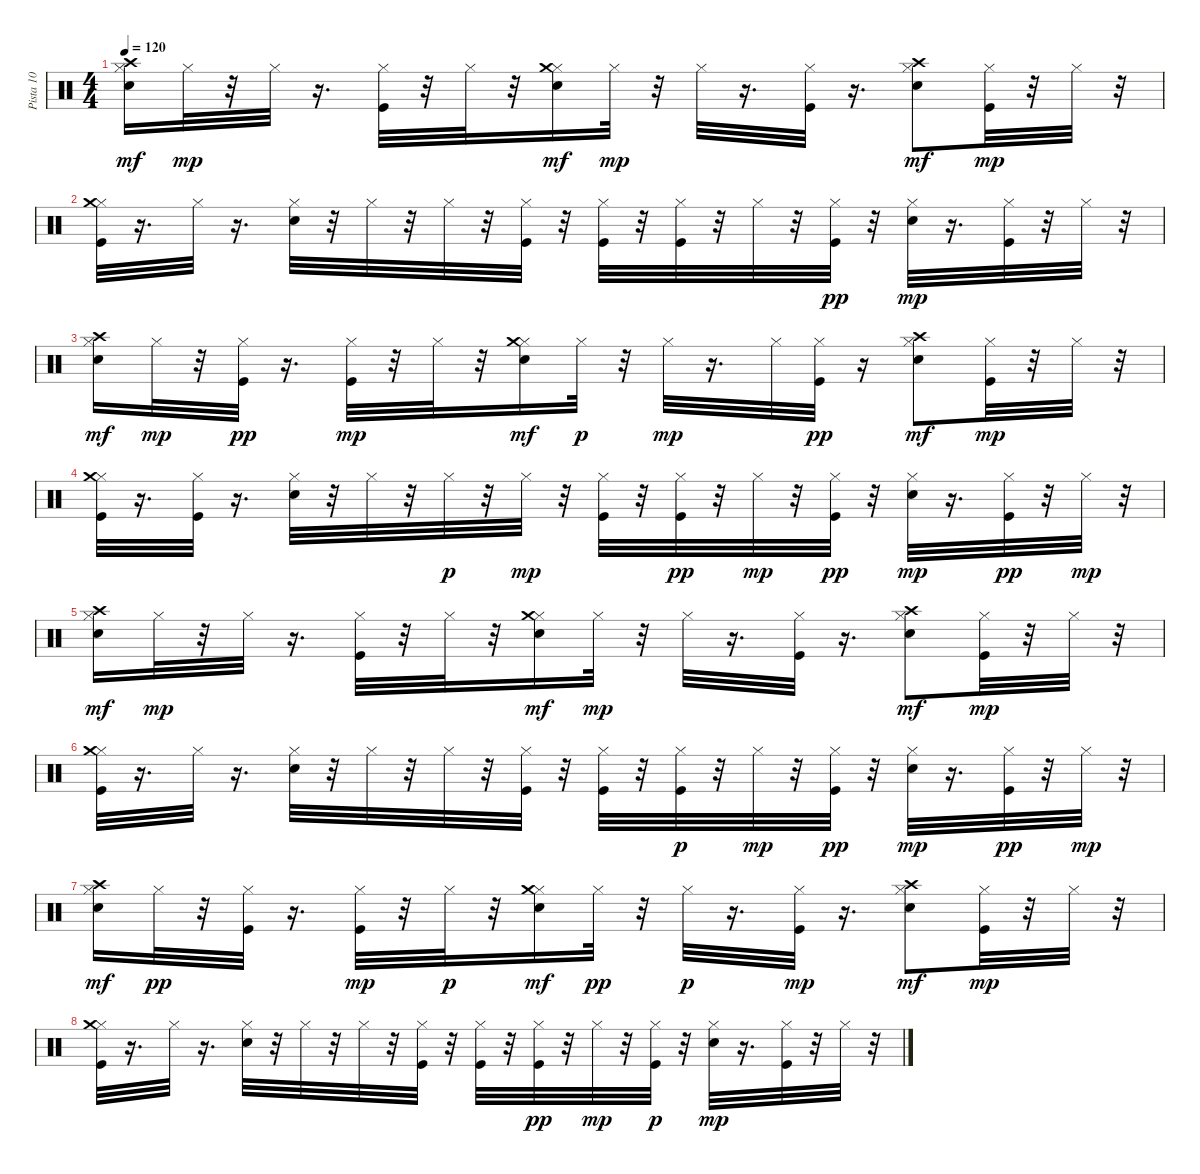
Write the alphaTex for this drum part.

\track ("Pista 10" "Pista 10") {instrument percussion}
\staff {score}
\articulation defaults
\ts (4 4)
\tempo 120
\clef neutral
\ks c
("Hi-Hat (closed)" "Crash high (hit)" "Snare (hit) 2").16{dy mf} "Hi-Hat (closed)".32{dy mp} r.32 "Hi-Hat (closed)".32 r.16{d} ("Kick (hit)" "Hi-Hat (closed)").32 r.32 "Hi-Hat (closed)".32 r.32 ("Hi-Hat (closed)" "Crash medium (hit)" "Snare (hit) 2").16{dy mf} "Hi-Hat (closed)".32{dy mp} r.32 "Hi-Hat (closed)".32 r.16{d} ("Kick (hit)" "Hi-Hat (closed)").32 r.16{d} ("Hi-Hat (closed)" "Crash high (hit)" "Snare (hit) 2").8{dy mf} ("Kick (hit)" "Hi-Hat (closed)").32{dy mp} r.32 "Hi-Hat (closed)".32 r.32 |
("Kick (hit)" "Hi-Hat (closed)" "Crash medium (hit)").32 r.16{d} "Hi-Hat (closed)".32 r.16{d} ("Hi-Hat (closed)" "Snare (hit) 2").32 r.32 "Hi-Hat (closed)".32 r.32 "Hi-Hat (closed)".32 r.32 ("Kick (hit)" "Hi-Hat (closed)").32 r.32 ("Kick (hit)" "Hi-Hat (closed)").32 r.32 ("Hi-Hat (closed)" "Kick (hit)").32 r.32 "Hi-Hat (closed)".32 r.32 ("Hi-Hat (closed)" "Kick (hit)").32{dy pp} r.32 ("Hi-Hat (closed)" "Snare (hit) 2").32{dy mp} r.16{d} ("Hi-Hat (closed)" "Kick (hit)").32 r.32 "Hi-Hat (closed)".32 r.32 |
("Hi-Hat (closed)" "Crash high (hit)" "Snare (hit) 2").16{dy mf} "Hi-Hat (closed)".32{dy mp} r.32 ("Hi-Hat (closed)" "Kick (hit)").32{dy pp} r.16{d} ("Kick (hit)" "Hi-Hat (closed)").32{dy mp} r.32 "Hi-Hat (closed)".32 r.32 ("Hi-Hat (closed)" "Crash medium (hit)" "Snare (hit) 2").16{dy mf} "Hi-Hat (closed)".32{dy p} r.32 "Hi-Hat (closed)".32{dy mp} r.16{d} "Hi-Hat (closed)".32 ("Kick (hit)" "Hi-Hat (closed)").32{dy pp} r.16 ("Hi-Hat (closed)" "Crash high (hit)" "Snare (hit) 2").8{dy mf} ("Kick (hit)" "Hi-Hat (closed)").32{dy mp} r.32 "Hi-Hat (closed)".32 r.32 |
("Kick (hit)" "Hi-Hat (closed)" "Crash medium (hit)").32 r.16{d} ("Kick (hit)" "Hi-Hat (closed)").32 r.16{d} ("Hi-Hat (closed)" "Snare (hit) 2").32 r.32 "Hi-Hat (closed)".32 r.32 "Hi-Hat (closed)".32{dy p} r.32 "Hi-Hat (closed)".32{dy mp} r.32 ("Kick (hit)" "Hi-Hat (closed)").32 r.32 ("Kick (hit)" "Hi-Hat (closed)").32{dy pp} r.32 "Hi-Hat (closed)".32{dy mp} r.32 ("Kick (hit)" "Hi-Hat (closed)").32{dy pp} r.32 ("Hi-Hat (closed)" "Snare (hit) 2").32{dy mp} r.16{d} ("Hi-Hat (closed)" "Kick (hit)").32{dy pp} r.32 "Hi-Hat (closed)".32{dy mp} r.32 |
("Hi-Hat (closed)" "Crash high (hit)" "Snare (hit) 2").16{dy mf} "Hi-Hat (closed)".32{dy mp} r.32 "Hi-Hat (closed)".32 r.16{d} ("Kick (hit)" "Hi-Hat (closed)").32 r.32 "Hi-Hat (closed)".32 r.32 ("Hi-Hat (closed)" "Crash medium (hit)" "Snare (hit) 2").16{dy mf} "Hi-Hat (closed)".32{dy mp} r.32 "Hi-Hat (closed)".32 r.16{d} ("Kick (hit)" "Hi-Hat (closed)").32 r.16{d} ("Hi-Hat (closed)" "Crash high (hit)" "Snare (hit) 2").8{dy mf} ("Kick (hit)" "Hi-Hat (closed)").32{dy mp} r.32 "Hi-Hat (closed)".32 r.32 |
("Kick (hit)" "Hi-Hat (closed)" "Crash medium (hit)").32 r.16{d} "Hi-Hat (closed)".32 r.16{d} ("Hi-Hat (closed)" "Snare (hit) 2").32 r.32 "Hi-Hat (closed)".32 r.32 "Hi-Hat (closed)".32 r.32 ("Kick (hit)" "Hi-Hat (closed)").32 r.32 ("Kick (hit)" "Hi-Hat (closed)").32 r.32 ("Kick (hit)" "Hi-Hat (closed)").32{dy p} r.32 "Hi-Hat (closed)".32{dy mp} r.32 ("Kick (hit)" "Hi-Hat (closed)").32{dy pp} r.32 ("Hi-Hat (closed)" "Snare (hit) 2").32{dy mp} r.16{d} ("Hi-Hat (closed)" "Kick (hit)").32{dy pp} r.32 "Hi-Hat (closed)".32{dy mp} r.32 |
("Hi-Hat (closed)" "Crash high (hit)" "Snare (hit) 2").16{dy mf} "Hi-Hat (closed)".32{dy pp} r.32 ("Hi-Hat (closed)" "Kick (hit)").32 r.16{d} ("Kick (hit)" "Hi-Hat (closed)").32{dy mp} r.32 "Hi-Hat (closed)".32{dy p} r.32 ("Hi-Hat (closed)" "Crash medium (hit)" "Snare (hit) 2").16{dy mf} "Hi-Hat (closed)".32{dy pp} r.32 "Hi-Hat (closed)".32{dy p} r.16{d} ("Kick (hit)" "Hi-Hat (closed)").32{dy mp} r.16{d} ("Hi-Hat (closed)" "Crash high (hit)" "Snare (hit) 2").8{dy mf} ("Kick (hit)" "Hi-Hat (closed)").32{dy mp} r.32 "Hi-Hat (closed)".32 r.32 |
("Kick (hit)" "Hi-Hat (closed)" "Crash medium (hit)").32 r.16{d} "Hi-Hat (closed)".32 r.16{d} ("Hi-Hat (closed)" "Snare (hit) 2").32 r.32 "Hi-Hat (closed)".32 r.32 "Hi-Hat (closed)".32 r.32 ("Kick (hit)" "Hi-Hat (closed)").32 r.32 ("Kick (hit)" "Hi-Hat (closed)").32 r.32 ("Kick (hit)" "Hi-Hat (closed)").32{dy pp} r.32 "Hi-Hat (closed)".32{dy mp} r.32 ("Kick (hit)" "Hi-Hat (closed)").32{dy p} r.32 ("Hi-Hat (closed)" "Snare (hit) 2").32{dy mp} r.16{d} ("Hi-Hat (closed)" "Kick (hit)").32 r.32 "Hi-Hat (closed)".32 r.32
